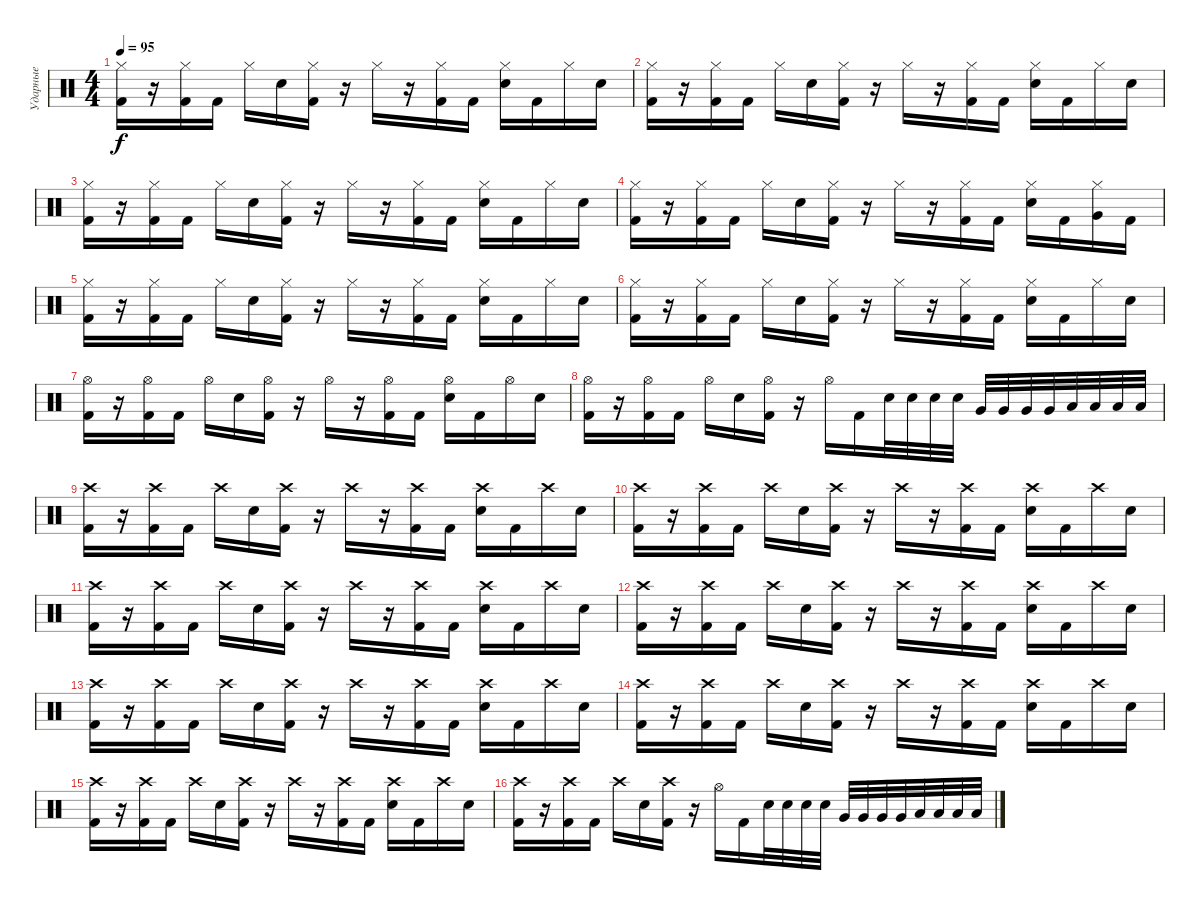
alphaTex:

\track ("Ударные" "Ударные") {instrument percussion}
\staff {score}
\articulation defaults
\ts (4 4)
\tempo 95
\clef neutral
\ks c
("Hi-Hat (closed)" "Kick (hit) 2").16{dy f} r.16 ("Hi-Hat (closed)" "Kick (hit) 2").16 "Kick (hit) 2".16 "Hi-Hat (closed)".16 "Electric Snare (hit)".16 ("Hi-Hat (closed)" "Kick (hit) 2").16 r.16 "Hi-Hat (closed)".16 r.16 ("Hi-Hat (closed)" "Kick (hit) 2").16 "Kick (hit) 2".16 ("Hi-Hat (closed)" "Electric Snare (hit)").16 "Kick (hit) 2".16 "Hi-Hat (closed)".16 "Electric Snare (hit)".16 |
("Hi-Hat (closed)" "Kick (hit) 2").16 r.16 ("Hi-Hat (closed)" "Kick (hit) 2").16 "Kick (hit) 2".16 "Hi-Hat (closed)".16 "Electric Snare (hit)".16 ("Hi-Hat (closed)" "Kick (hit) 2").16 r.16 "Hi-Hat (closed)".16 r.16 ("Hi-Hat (closed)" "Kick (hit) 2").16 "Kick (hit) 2".16 ("Hi-Hat (closed)" "Electric Snare (hit)").16 "Kick (hit) 2".16 "Hi-Hat (closed)".16 "Electric Snare (hit)".16 |
("Hi-Hat (closed)" "Kick (hit) 2").16 r.16 ("Hi-Hat (closed)" "Kick (hit) 2").16 "Kick (hit) 2".16 "Hi-Hat (closed)".16 "Electric Snare (hit)".16 ("Hi-Hat (closed)" "Kick (hit) 2").16 r.16 "Hi-Hat (closed)".16 r.16 ("Hi-Hat (closed)" "Kick (hit) 2").16 "Kick (hit) 2".16 ("Hi-Hat (closed)" "Electric Snare (hit)").16 "Kick (hit) 2".16 "Hi-Hat (closed)".16 "Electric Snare (hit)".16 |
("Hi-Hat (closed)" "Kick (hit) 2").16 r.16 ("Hi-Hat (closed)" "Kick (hit) 2").16 "Kick (hit) 2".16 "Hi-Hat (closed)".16 "Electric Snare (hit)".16 ("Hi-Hat (closed)" "Kick (hit) 2").16 r.16 "Hi-Hat (closed)".16 r.16 ("Hi-Hat (closed)" "Kick (hit) 2").16 "Kick (hit) 2".16 ("Hi-Hat (closed)" "Electric Snare (hit)").16 "Kick (hit) 2".16 ("Hi-Hat (closed)" "Very Low Tom (hit)").16 "Kick (hit) 2".16 |
("Hi-Hat (closed)" "Kick (hit) 2").16 r.16 ("Hi-Hat (closed)" "Kick (hit) 2").16 "Kick (hit) 2".16 "Hi-Hat (closed)".16 "Electric Snare (hit)".16 ("Hi-Hat (closed)" "Kick (hit) 2").16 r.16 "Hi-Hat (closed)".16 r.16 ("Hi-Hat (closed)" "Kick (hit) 2").16 "Kick (hit) 2".16 ("Hi-Hat (closed)" "Electric Snare (hit)").16 "Kick (hit) 2".16 "Hi-Hat (closed)".16 "Electric Snare (hit)".16 |
("Hi-Hat (closed)" "Kick (hit) 2").16 r.16 ("Hi-Hat (closed)" "Kick (hit) 2").16 "Kick (hit) 2".16 "Hi-Hat (closed)".16 "Electric Snare (hit)".16 ("Hi-Hat (closed)" "Kick (hit) 2").16 r.16 "Hi-Hat (closed)".16 r.16 ("Hi-Hat (closed)" "Kick (hit) 2").16 "Kick (hit) 2".16 ("Hi-Hat (closed)" "Electric Snare (hit)").16 "Kick (hit) 2".16 "Hi-Hat (closed)".16 "Electric Snare (hit)".16 |
("Hi-Hat (open)" "Kick (hit) 2").16 r.16 ("Hi-Hat (open)" "Kick (hit) 2").16 "Kick (hit) 2".16 "Hi-Hat (open)".16 "Electric Snare (hit)".16 ("Hi-Hat (open)" "Kick (hit) 2").16 r.16 "Hi-Hat (open)".16 r.16 ("Hi-Hat (open)" "Kick (hit) 2").16 "Kick (hit) 2".16 ("Hi-Hat (open)" "Electric Snare (hit)").16 "Kick (hit) 2".16 "Hi-Hat (open)".16 "Electric Snare (hit)".16 |
("Hi-Hat (open)" "Kick (hit) 2").16 r.16 ("Hi-Hat (open)" "Kick (hit) 2").16 "Kick (hit) 2".16 "Hi-Hat (open)".16 "Electric Snare (hit)".16 ("Hi-Hat (open)" "Kick (hit) 2").16 r.16 "Hi-Hat (open)".16 "Kick (hit) 2".16 "Electric Snare (hit)".32 "Electric Snare (hit)".32 "Electric Snare (hit)".32 "Electric Snare (hit)".32 "Very Low Tom (hit)".32 "Very Low Tom (hit)".32 "Very Low Tom (hit)".32 "Very Low Tom (hit)".32 "Low Floor Tom (hit)".32 "Low Floor Tom (hit)".32 "Low Floor Tom (hit)".32 "Low Floor Tom (hit)".32 |
("Crash high (hit)" "Kick (hit) 2").16 r.16 ("Crash high (hit)" "Kick (hit) 2").16 "Kick (hit) 2".16 "Crash high (hit)".16 "Electric Snare (hit)".16 ("Crash high (hit)" "Kick (hit) 2").16 r.16 "Crash high (hit)".16 r.16 ("Crash high (hit)" "Kick (hit) 2").16 "Kick (hit) 2".16 ("Crash high (hit)" "Electric Snare (hit)").16 "Kick (hit) 2".16 "Crash high (hit)".16 "Electric Snare (hit)".16 |
("Crash high (hit)" "Kick (hit) 2").16 r.16 ("Crash high (hit)" "Kick (hit) 2").16 "Kick (hit) 2".16 "Crash high (hit)".16 "Electric Snare (hit)".16 ("Crash high (hit)" "Kick (hit) 2").16 r.16 "Crash high (hit)".16 r.16 ("Crash high (hit)" "Kick (hit) 2").16 "Kick (hit) 2".16 ("Crash high (hit)" "Electric Snare (hit)").16 "Kick (hit) 2".16 "Crash high (hit)".16 "Electric Snare (hit)".16 |
("Crash high (hit)" "Kick (hit) 2").16 r.16 ("Crash high (hit)" "Kick (hit) 2").16 "Kick (hit) 2".16 "Crash high (hit)".16 "Electric Snare (hit)".16 ("Crash high (hit)" "Kick (hit) 2").16 r.16 "Crash high (hit)".16 r.16 ("Crash high (hit)" "Kick (hit) 2").16 "Kick (hit) 2".16 ("Crash high (hit)" "Electric Snare (hit)").16 "Kick (hit) 2".16 "Crash high (hit)".16 "Electric Snare (hit)".16 |
("Crash high (hit)" "Kick (hit) 2").16 r.16 ("Crash high (hit)" "Kick (hit) 2").16 "Kick (hit) 2".16 "Crash high (hit)".16 "Electric Snare (hit)".16 ("Crash high (hit)" "Kick (hit) 2").16 r.16 "Crash high (hit)".16 r.16 ("Crash high (hit)" "Kick (hit) 2").16 "Kick (hit) 2".16 ("Crash high (hit)" "Electric Snare (hit)").16 "Kick (hit) 2".16 "Crash high (hit)".16 "Electric Snare (hit)".16 |
("Crash high (hit)" "Kick (hit) 2").16 r.16 ("Crash high (hit)" "Kick (hit) 2").16 "Kick (hit) 2".16 "Crash high (hit)".16 "Electric Snare (hit)".16 ("Crash high (hit)" "Kick (hit) 2").16 r.16 "Crash high (hit)".16 r.16 ("Crash high (hit)" "Kick (hit) 2").16 "Kick (hit) 2".16 ("Crash high (hit)" "Electric Snare (hit)").16 "Kick (hit) 2".16 "Crash high (hit)".16 "Electric Snare (hit)".16 |
("Crash high (hit)" "Kick (hit) 2").16 r.16 ("Crash high (hit)" "Kick (hit) 2").16 "Kick (hit) 2".16 "Crash high (hit)".16 "Electric Snare (hit)".16 ("Crash high (hit)" "Kick (hit) 2").16 r.16 "Crash high (hit)".16 r.16 ("Crash high (hit)" "Kick (hit) 2").16 "Kick (hit) 2".16 ("Crash high (hit)" "Electric Snare (hit)").16 "Kick (hit) 2".16 "Crash high (hit)".16 "Electric Snare (hit)".16 |
("Crash high (hit)" "Kick (hit) 2").16 r.16 ("Crash high (hit)" "Kick (hit) 2").16 "Kick (hit) 2".16 "Crash high (hit)".16 "Electric Snare (hit)".16 ("Crash high (hit)" "Kick (hit) 2").16 r.16 "Crash high (hit)".16 r.16 ("Crash high (hit)" "Kick (hit) 2").16 "Kick (hit) 2".16 ("Crash high (hit)" "Electric Snare (hit)").16 "Kick (hit) 2".16 "Crash high (hit)".16 "Electric Snare (hit)".16 |
("Crash high (hit)" "Kick (hit) 2").16 r.16 ("Crash high (hit)" "Kick (hit) 2").16 "Kick (hit) 2".16 "Crash high (hit)".16 "Electric Snare (hit)".16 ("Crash high (hit)" "Kick (hit) 2").16 r.16 "Hi-Hat (open)".16 "Kick (hit) 2".16 "Electric Snare (hit)".32 "Electric Snare (hit)".32 "Electric Snare (hit)".32 "Electric Snare (hit)".32 "Very Low Tom (hit)".32 "Very Low Tom (hit)".32 "Very Low Tom (hit)".32 "Very Low Tom (hit)".32 "Low Floor Tom (hit)".32 "Low Floor Tom (hit)".32 "Low Floor Tom (hit)".32 "Low Floor Tom (hit)".32
